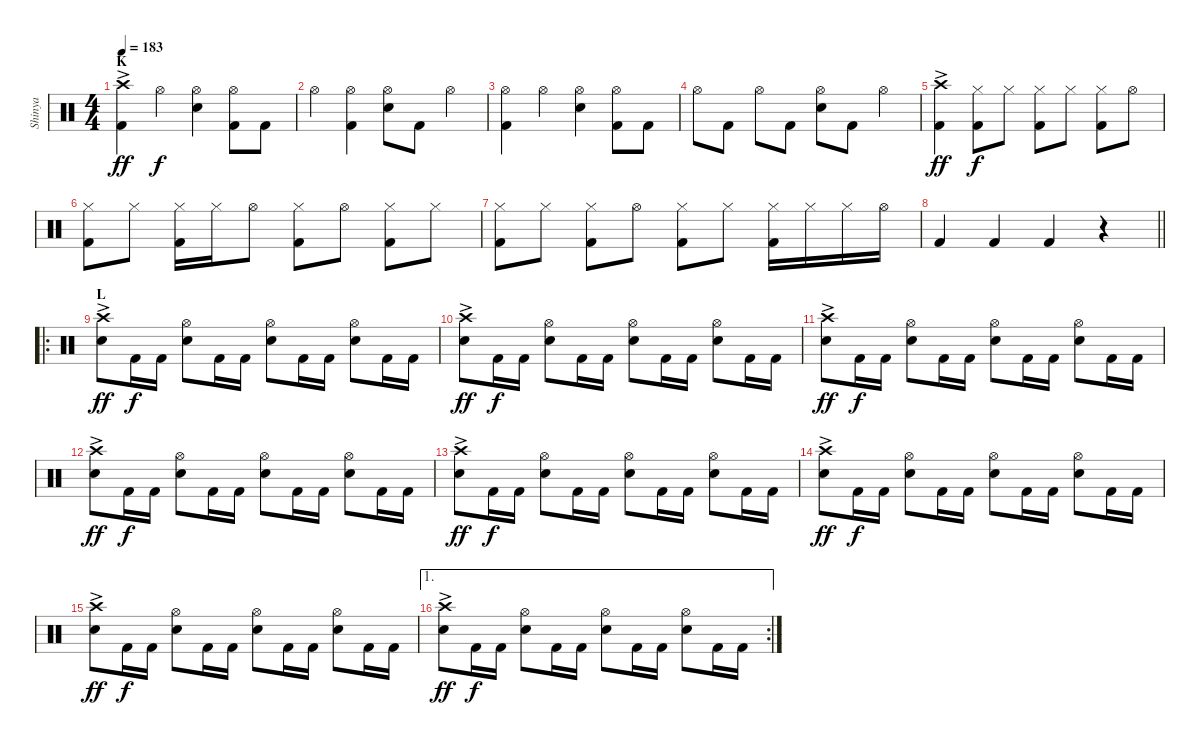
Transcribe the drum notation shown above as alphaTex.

\track ("Shinya" "Shinya") {instrument percussion}
\staff {score}
\articulation defaults
\ts (4 4)
\section ("" "K")
\tempo 183
\clef neutral
\ks c
("Crash high (hit)"{ac} "Kick (hit) 2").4{dy ff} "Hi-Hat (open)".4{dy f} ("Hi-Hat (open)" "Snare (hit) 2").4 ("Hi-Hat (open)" "Kick (hit) 2").8 "Kick (hit) 2".8 |
"Hi-Hat (open)".4 ("Hi-Hat (open)" "Kick (hit) 2").4 ("Hi-Hat (open)" "Snare (hit) 2").8 "Kick (hit) 2".8 "Hi-Hat (open)".4 |
("Hi-Hat (open)" "Kick (hit) 2").4 "Hi-Hat (open)".4 ("Hi-Hat (open)" "Snare (hit) 2").4 ("Hi-Hat (open)" "Kick (hit) 2").8 "Kick (hit) 2".8 |
"Hi-Hat (open)".8 "Kick (hit) 2".8 "Hi-Hat (open)".8 "Kick (hit) 2".8 ("Hi-Hat (open)" "Snare (hit) 2").8 "Kick (hit) 2".8 "Hi-Hat (open)".4 |
("Crash high (hit)"{ac} "Kick (hit) 2").4{dy ff} ("Hi-Hat (closed)" "Kick (hit) 2").8{dy f} "Hi-Hat (closed)".8 ("Hi-Hat (closed)" "Kick (hit) 2").8 "Hi-Hat (closed)".8 ("Hi-Hat (closed)" "Kick (hit) 2").8 "Hi-Hat (open)".8 |
("Hi-Hat (closed)" "Kick (hit) 2").8 "Hi-Hat (closed)".8 ("Hi-Hat (closed)" "Kick (hit) 2").16 "Hi-Hat (closed)".16 "Hi-Hat (open)".8 ("Hi-Hat (closed)" "Kick (hit) 2").8 "Hi-Hat (open)".8 ("Hi-Hat (closed)" "Kick (hit) 2").8 "Hi-Hat (closed)".8 |
("Hi-Hat (closed)" "Kick (hit) 2").8 "Hi-Hat (closed)".8 ("Hi-Hat (closed)" "Kick (hit) 2").8 "Hi-Hat (open)".8 ("Hi-Hat (closed)" "Kick (hit) 2").8 "Hi-Hat (closed)".8 ("Hi-Hat (closed)" "Kick (hit) 2").16 "Hi-Hat (closed)".16 "Hi-Hat (closed)".16 "Hi-Hat (open)".16 |
\barLineRight lightlight "Kick (hit) 2".4 "Kick (hit) 2".4 "Kick (hit) 2".4
r.4 |
\ro
\section ("" "L")
("Crash high (hit)"{ac} "Snare (hit) 2").8{dy ff} "Kick (hit) 2".16{dy f} "Kick (hit) 2".16 ("Hi-Hat (open)" "Snare (hit) 2").8 "Kick (hit) 2".16 "Kick (hit) 2".16 ("Hi-Hat (open)" "Snare (hit) 2").8 "Kick (hit) 2".16 "Kick (hit) 2".16 ("Hi-Hat (open)" "Snare (hit) 2").8 "Kick (hit) 2".16 "Kick (hit) 2".16 |
("Crash high (hit)"{ac} "Snare (hit) 2").8{dy ff} "Kick (hit) 2".16{dy f} "Kick (hit) 2".16 ("Hi-Hat (open)" "Snare (hit) 2").8 "Kick (hit) 2".16 "Kick (hit) 2".16 ("Hi-Hat (open)" "Snare (hit) 2").8 "Kick (hit) 2".16 "Kick (hit) 2".16 ("Hi-Hat (open)" "Snare (hit) 2").8 "Kick (hit) 2".16 "Kick (hit) 2".16 |
("Crash high (hit)"{ac} "Snare (hit) 2").8{dy ff} "Kick (hit) 2".16{dy f} "Kick (hit) 2".16 ("Hi-Hat (open)" "Snare (hit) 2").8 "Kick (hit) 2".16 "Kick (hit) 2".16 ("Hi-Hat (open)" "Snare (hit) 2").8 "Kick (hit) 2".16 "Kick (hit) 2".16 ("Hi-Hat (open)" "Snare (hit) 2").8 "Kick (hit) 2".16 "Kick (hit) 2".16 |
("Crash high (hit)"{ac} "Snare (hit) 2").8{dy ff} "Kick (hit) 2".16{dy f} "Kick (hit) 2".16 ("Hi-Hat (open)" "Snare (hit) 2").8 "Kick (hit) 2".16 "Kick (hit) 2".16 ("Hi-Hat (open)" "Snare (hit) 2").8 "Kick (hit) 2".16 "Kick (hit) 2".16 ("Hi-Hat (open)" "Snare (hit) 2").8 "Kick (hit) 2".16 "Kick (hit) 2".16 |
("Crash high (hit)"{ac} "Snare (hit) 2").8{dy ff} "Kick (hit) 2".16{dy f} "Kick (hit) 2".16 ("Hi-Hat (open)" "Snare (hit) 2").8 "Kick (hit) 2".16 "Kick (hit) 2".16 ("Hi-Hat (open)" "Snare (hit) 2").8 "Kick (hit) 2".16 "Kick (hit) 2".16 ("Hi-Hat (open)" "Snare (hit) 2").8 "Kick (hit) 2".16 "Kick (hit) 2".16 |
("Crash high (hit)"{ac} "Snare (hit) 2").8{dy ff} "Kick (hit) 2".16{dy f} "Kick (hit) 2".16 ("Hi-Hat (open)" "Snare (hit) 2").8 "Kick (hit) 2".16 "Kick (hit) 2".16 ("Hi-Hat (open)" "Snare (hit) 2").8 "Kick (hit) 2".16 "Kick (hit) 2".16 ("Hi-Hat (open)" "Snare (hit) 2").8 "Kick (hit) 2".16 "Kick (hit) 2".16 |
("Crash high (hit)"{ac} "Snare (hit) 2").8{dy ff} "Kick (hit) 2".16{dy f} "Kick (hit) 2".16 ("Hi-Hat (open)" "Snare (hit) 2").8 "Kick (hit) 2".16 "Kick (hit) 2".16 ("Hi-Hat (open)" "Snare (hit) 2").8 "Kick (hit) 2".16 "Kick (hit) 2".16 ("Hi-Hat (open)" "Snare (hit) 2").8 "Kick (hit) 2".16 "Kick (hit) 2".16 |
\ae 1
\rc 2
("Crash high (hit)"{ac} "Snare (hit) 2").8{dy ff} "Kick (hit) 2".16{dy f} "Kick (hit) 2".16 ("Hi-Hat (open)" "Snare (hit) 2").8 "Kick (hit) 2".16 "Kick (hit) 2".16 ("Hi-Hat (open)" "Snare (hit) 2").8 "Kick (hit) 2".16 "Kick (hit) 2".16 ("Hi-Hat (open)" "Snare (hit) 2").8 "Kick (hit) 2".16 "Kick (hit) 2".16
